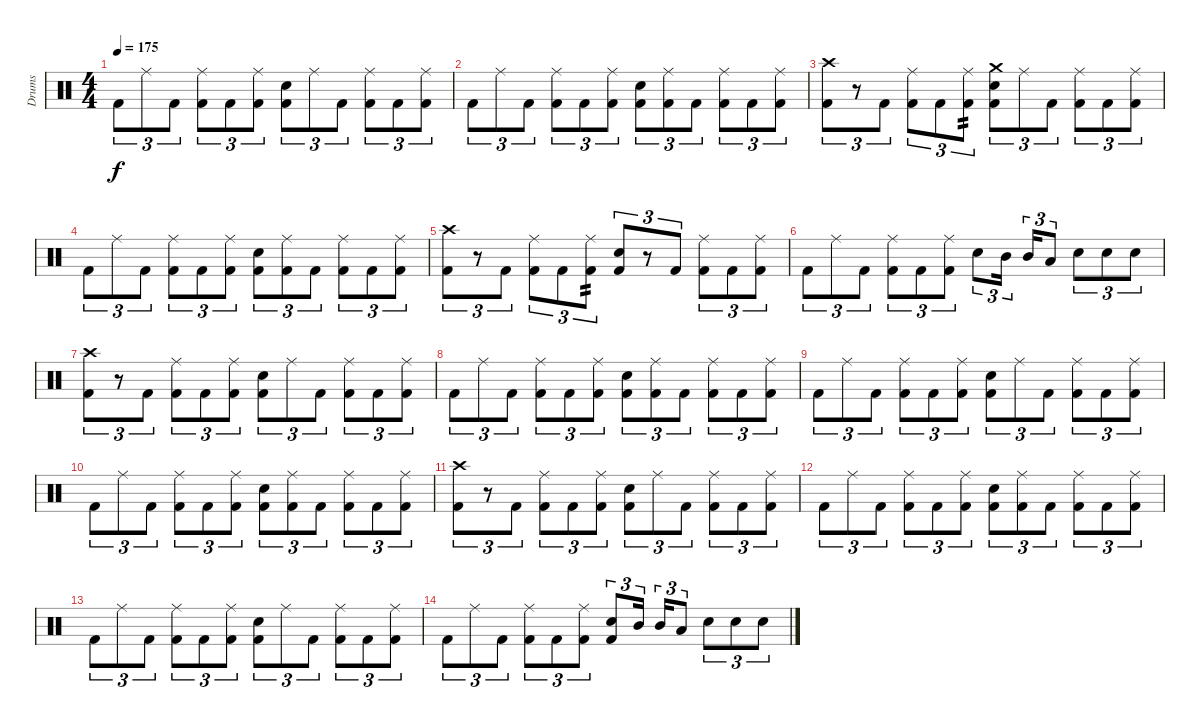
\track ("Drums" "Drums") {instrument percussion}
\staff {score}
\articulation defaults
\ts (4 4)
\tempo 175
\clef neutral
\ks c "Kick (hit) 2".8{tu (3 2) dy f} "Ride (middle)".8{tu (3 2)} "Kick (hit) 2".8{tu (3 2)}
("Ride (middle)" "Kick (hit) 2").8{tu (3 2)} "Kick (hit) 2".8{tu (3 2)} ("Ride (middle)" "Kick (hit) 2").8{tu (3 2)} ("Electric Snare (hit)" "Kick (hit) 2").8{tu (3 2)} "Ride (middle)".8{tu (3 2)} "Kick (hit) 2".8{tu (3 2)} ("Ride (middle)" "Kick (hit) 2").8{tu (3 2)} "Kick (hit) 2".8{tu (3 2)} ("Ride (middle)" "Kick (hit) 2").8{tu (3 2)} |
"Kick (hit) 2".8{tu (3 2)} "Ride (middle)".8{tu (3 2)} "Kick (hit) 2".8{tu (3 2)} ("Ride (middle)" "Kick (hit) 2").8{tu (3 2)} "Kick (hit) 2".8{tu (3 2)} ("Ride (middle)" "Kick (hit) 2").8{tu (3 2)} ("Electric Snare (hit)" "Kick (hit) 2").8{tu (3 2)} ("Ride (middle)" "Kick (hit) 2").8{tu (3 2)} "Kick (hit) 2".8{tu (3 2)} ("Ride (middle)" "Kick (hit) 2").8{tu (3 2)} "Kick (hit) 2".8{tu (3 2)} ("Ride (middle)" "Kick (hit) 2").8{tu (3 2)} |
("Crash high (hit)" "Kick (hit) 2").8{tu (3 2)} r.8{tu (3 2)} "Kick (hit) 2".8{tu (3 2)} ("Ride (middle)" "Kick (hit) 2").8{tu (3 2)} "Kick (hit) 2".8{tu (3 2)} ("Ride (middle)" "Kick (hit) 2").8{tu (3 2) tp 2} ("Crash medium (hit)" "Electric Snare (hit)" "Kick (hit) 2").8{tu (3 2)} "Ride (middle)".8{tu (3 2)} "Kick (hit) 2".8{tu (3 2)} ("Ride (middle)" "Kick (hit) 2").8{tu (3 2)} "Kick (hit) 2".8{tu (3 2)} ("Ride (middle)" "Kick (hit) 2").8{tu (3 2)} |
"Kick (hit) 2".8{tu (3 2)} "Ride (middle)".8{tu (3 2)} "Kick (hit) 2".8{tu (3 2)} ("Ride (middle)" "Kick (hit) 2").8{tu (3 2)} "Kick (hit) 2".8{tu (3 2)} ("Ride (middle)" "Kick (hit) 2").8{tu (3 2)} ("Electric Snare (hit)" "Kick (hit) 2").8{tu (3 2)} ("Ride (middle)" "Kick (hit) 2").8{tu (3 2)} "Kick (hit) 2".8{tu (3 2)} ("Ride (middle)" "Kick (hit) 2").8{tu (3 2)} "Kick (hit) 2".8{tu (3 2)} ("Ride (middle)" "Kick (hit) 2").8{tu (3 2)} |
("Crash high (hit)" "Kick (hit) 2").8{tu (3 2)} r.8{tu (3 2)} "Kick (hit) 2".8{tu (3 2)} ("Ride (middle)" "Kick (hit) 2").8{tu (3 2)} "Kick (hit) 2".8{tu (3 2)} ("Ride (middle)" "Kick (hit) 2").8{tu (3 2) tp 2} ("Electric Snare (hit)" "Kick (hit) 2").8{tu (3 2)} r.8{tu (3 2)} "Kick (hit) 2".8{tu (3 2)} ("Ride (middle)" "Kick (hit) 2").8{tu (3 2)} "Kick (hit) 2".8{tu (3 2)} ("Ride (middle)" "Kick (hit) 2").8{tu (3 2)} |
"Kick (hit) 2".8{tu (3 2)} "Ride (middle)".8{tu (3 2)} "Kick (hit) 2".8{tu (3 2)} ("Ride (middle)" "Kick (hit) 2").8{tu (3 2)} "Kick (hit) 2".8{tu (3 2)} ("Ride (middle)" "Kick (hit) 2").8{tu (3 2)} "Electric Snare (hit)".8{tu (3 2)} "Mid Tom (hit)".16{tu (3 2) beam splitsecondary} "Mid Tom (hit)".16{tu (3 2)} "Low Tom (hit)".8{tu (3 2)} "Electric Snare (hit)".8{tu (3 2)} "Electric Snare (hit)".8{tu (3 2)} "Electric Snare (hit)".8{tu (3 2)} |
("Crash high (hit)" "Kick (hit) 2").8{tu (3 2)} r.8{tu (3 2)} "Kick (hit) 2".8{tu (3 2)} ("Ride (middle)" "Kick (hit) 2").8{tu (3 2)} "Kick (hit) 2".8{tu (3 2)} ("Ride (middle)" "Kick (hit) 2").8{tu (3 2)} ("Electric Snare (hit)" "Kick (hit) 2").8{tu (3 2)} "Ride (middle)".8{tu (3 2)} "Kick (hit) 2".8{tu (3 2)} ("Ride (middle)" "Kick (hit) 2").8{tu (3 2)} "Kick (hit) 2".8{tu (3 2)} ("Ride (middle)" "Kick (hit) 2").8{tu (3 2)} |
"Kick (hit) 2".8{tu (3 2)} "Ride (middle)".8{tu (3 2)} "Kick (hit) 2".8{tu (3 2)} ("Ride (middle)" "Kick (hit) 2").8{tu (3 2)} "Kick (hit) 2".8{tu (3 2)} ("Ride (middle)" "Kick (hit) 2").8{tu (3 2)} ("Electric Snare (hit)" "Kick (hit) 2").8{tu (3 2)} ("Ride (middle)" "Kick (hit) 2").8{tu (3 2)} "Kick (hit) 2".8{tu (3 2)} ("Ride (middle)" "Kick (hit) 2").8{tu (3 2)} "Kick (hit) 2".8{tu (3 2)} ("Ride (middle)" "Kick (hit) 2").8{tu (3 2)} |
"Kick (hit) 2".8{tu (3 2)} "Ride (middle)".8{tu (3 2)} "Kick (hit) 2".8{tu (3 2)} ("Ride (middle)" "Kick (hit) 2").8{tu (3 2)} "Kick (hit) 2".8{tu (3 2)} ("Ride (middle)" "Kick (hit) 2").8{tu (3 2)} ("Electric Snare (hit)" "Kick (hit) 2").8{tu (3 2)} "Ride (middle)".8{tu (3 2)} "Kick (hit) 2".8{tu (3 2)} ("Ride (middle)" "Kick (hit) 2").8{tu (3 2)} "Kick (hit) 2".8{tu (3 2)} ("Ride (middle)" "Kick (hit) 2").8{tu (3 2)} |
"Kick (hit) 2".8{tu (3 2)} "Ride (middle)".8{tu (3 2)} "Kick (hit) 2".8{tu (3 2)} ("Ride (middle)" "Kick (hit) 2").8{tu (3 2)} "Kick (hit) 2".8{tu (3 2)} ("Ride (middle)" "Kick (hit) 2").8{tu (3 2)} ("Electric Snare (hit)" "Kick (hit) 2").8{tu (3 2)} ("Ride (middle)" "Kick (hit) 2").8{tu (3 2)} "Kick (hit) 2".8{tu (3 2)} ("Ride (middle)" "Kick (hit) 2").8{tu (3 2)} "Kick (hit) 2".8{tu (3 2)} ("Ride (middle)" "Kick (hit) 2").8{tu (3 2)} |
("Crash high (hit)" "Kick (hit) 2").8{tu (3 2)} r.8{tu (3 2)} "Kick (hit) 2".8{tu (3 2)} ("Ride (middle)" "Kick (hit) 2").8{tu (3 2)} "Kick (hit) 2".8{tu (3 2)} ("Ride (middle)" "Kick (hit) 2").8{tu (3 2)} ("Electric Snare (hit)" "Kick (hit) 2").8{tu (3 2)} "Ride (middle)".8{tu (3 2)} "Kick (hit) 2".8{tu (3 2)} ("Ride (middle)" "Kick (hit) 2").8{tu (3 2)} "Kick (hit) 2".8{tu (3 2)} ("Ride (middle)" "Kick (hit) 2").8{tu (3 2)} |
"Kick (hit) 2".8{tu (3 2)} "Ride (middle)".8{tu (3 2)} "Kick (hit) 2".8{tu (3 2)} ("Ride (middle)" "Kick (hit) 2").8{tu (3 2)} "Kick (hit) 2".8{tu (3 2)} ("Ride (middle)" "Kick (hit) 2").8{tu (3 2)} ("Electric Snare (hit)" "Kick (hit) 2").8{tu (3 2)} ("Ride (middle)" "Kick (hit) 2").8{tu (3 2)} "Kick (hit) 2".8{tu (3 2)} ("Ride (middle)" "Kick (hit) 2").8{tu (3 2)} "Kick (hit) 2".8{tu (3 2)} ("Ride (middle)" "Kick (hit) 2").8{tu (3 2)} |
"Kick (hit) 2".8{tu (3 2)} "Ride (middle)".8{tu (3 2)} "Kick (hit) 2".8{tu (3 2)} ("Ride (middle)" "Kick (hit) 2").8{tu (3 2)} "Kick (hit) 2".8{tu (3 2)} ("Ride (middle)" "Kick (hit) 2").8{tu (3 2)} ("Electric Snare (hit)" "Kick (hit) 2").8{tu (3 2)} "Ride (middle)".8{tu (3 2)} "Kick (hit) 2".8{tu (3 2)} ("Ride (middle)" "Kick (hit) 2").8{tu (3 2)} "Kick (hit) 2".8{tu (3 2)} ("Ride (middle)" "Kick (hit) 2").8{tu (3 2)} |
"Kick (hit) 2".8{tu (3 2)} "Ride (middle)".8{tu (3 2)} "Kick (hit) 2".8{tu (3 2)} ("Ride (middle)" "Kick (hit) 2").8{tu (3 2)} "Kick (hit) 2".8{tu (3 2)} ("Ride (middle)" "Kick (hit) 2").8{tu (3 2)} ("Electric Snare (hit)" "Kick (hit) 2").8{tu (3 2)} "Mid Tom (hit)".16{tu (3 2) beam splitsecondary} "Mid Tom (hit)".16{tu (3 2)} "Low Tom (hit)".8{tu (3 2)} "Electric Snare (hit)".8{tu (3 2)} "Electric Snare (hit)".8{tu (3 2)} "Electric Snare (hit)".8{tu (3 2)}
